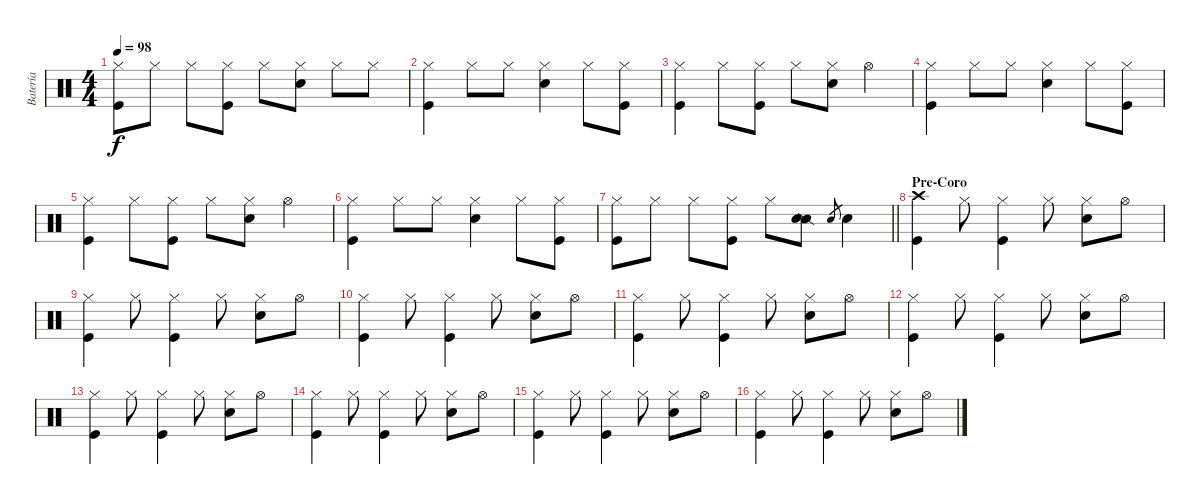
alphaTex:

\track ("Batería" "Batería") {instrument percussion}
\staff {score}
\articulation defaults
\ts (4 4)
\tempo 98
\clef neutral
\ks c
("Hi-Hat (closed)" "Kick (hit)").8{dy f} "Hi-Hat (closed)".8 "Hi-Hat (closed)".8 ("Hi-Hat (closed)" "Kick (hit)").8 "Hi-Hat (closed)".8 ("Hi-Hat (closed)" "Snare (hit) 2").8 "Hi-Hat (closed)".8 "Hi-Hat (closed)".8 |
("Hi-Hat (closed)" "Kick (hit)").4 "Hi-Hat (closed)".8 "Hi-Hat (closed)".8 ("Hi-Hat (closed)" "Snare (hit) 2").4 "Hi-Hat (closed)".8 ("Hi-Hat (closed)" "Kick (hit)").8 |
("Hi-Hat (closed)" "Kick (hit)").4 "Hi-Hat (closed)".8 ("Hi-Hat (closed)" "Kick (hit)").8 "Hi-Hat (closed)".8 ("Hi-Hat (closed)" "Snare (hit) 2").8 "Hi-Hat (open)".4 |
("Hi-Hat (closed)" "Kick (hit)").4 "Hi-Hat (closed)".8 "Hi-Hat (closed)".8 ("Hi-Hat (closed)" "Snare (hit) 2").4 "Hi-Hat (closed)".8 ("Hi-Hat (closed)" "Kick (hit)").8 |
("Hi-Hat (closed)" "Kick (hit)").4 "Hi-Hat (closed)".8 ("Hi-Hat (closed)" "Kick (hit)").8 "Hi-Hat (closed)".8 ("Hi-Hat (closed)" "Snare (hit) 2").8 "Hi-Hat (open)".4 |
("Hi-Hat (closed)" "Kick (hit)").4 "Hi-Hat (closed)".8 "Hi-Hat (closed)".8 ("Hi-Hat (closed)" "Snare (hit) 2").4 "Hi-Hat (closed)".8 ("Hi-Hat (closed)" "Kick (hit)").8 |
\barLineRight lightlight
("Hi-Hat (closed)" "Kick (hit)").8 "Hi-Hat (closed)".8 "Hi-Hat (closed)".8 ("Hi-Hat (closed)" "Kick (hit)").8 "Hi-Hat (closed)".8 ("Snare (side stick) 2" "Snare (hit) 2").8 "Snare (hit) 2".8{gr} "Snare (hit) 2".4 |
\section ("" "Pre-Coro")
("Crash high (hit)" "Kick (hit)").4 "Hi-Hat (closed)".8 ("Hi-Hat (closed)" "Kick (hit)").4 "Hi-Hat (closed)".8 ("Hi-Hat (closed)" "Snare (hit) 2").8 "Hi-Hat (open)".8 |
("Hi-Hat (closed)" "Kick (hit)").4 "Hi-Hat (closed)".8 ("Hi-Hat (closed)" "Kick (hit)").4 "Hi-Hat (closed)".8 ("Hi-Hat (closed)" "Snare (hit) 2").8 "Hi-Hat (open)".8 |
("Hi-Hat (closed)" "Kick (hit)").4 "Hi-Hat (closed)".8 ("Hi-Hat (closed)" "Kick (hit)").4 "Hi-Hat (closed)".8 ("Hi-Hat (closed)" "Snare (hit) 2").8 "Hi-Hat (open)".8 |
("Hi-Hat (closed)" "Kick (hit)").4 "Hi-Hat (closed)".8 ("Hi-Hat (closed)" "Kick (hit)").4 "Hi-Hat (closed)".8 ("Hi-Hat (closed)" "Snare (hit) 2").8 "Hi-Hat (open)".8 |
("Hi-Hat (closed)" "Kick (hit)").4 "Hi-Hat (closed)".8 ("Hi-Hat (closed)" "Kick (hit)").4 "Hi-Hat (closed)".8 ("Hi-Hat (closed)" "Snare (hit) 2").8 "Hi-Hat (open)".8 |
("Hi-Hat (closed)" "Kick (hit)").4 "Hi-Hat (closed)".8 ("Hi-Hat (closed)" "Kick (hit)").4 "Hi-Hat (closed)".8 ("Hi-Hat (closed)" "Snare (hit) 2").8 "Hi-Hat (open)".8 |
("Hi-Hat (closed)" "Kick (hit)").4 "Hi-Hat (closed)".8 ("Hi-Hat (closed)" "Kick (hit)").4 "Hi-Hat (closed)".8 ("Hi-Hat (closed)" "Snare (hit) 2").8 "Hi-Hat (open)".8 |
("Hi-Hat (closed)" "Kick (hit)").4 "Hi-Hat (closed)".8 ("Hi-Hat (closed)" "Kick (hit)").4 "Hi-Hat (closed)".8 ("Hi-Hat (closed)" "Snare (hit) 2").8 "Hi-Hat (open)".8 |
("Hi-Hat (closed)" "Kick (hit)").4 "Hi-Hat (closed)".8 ("Hi-Hat (closed)" "Kick (hit)").4 "Hi-Hat (closed)".8 ("Hi-Hat (closed)" "Snare (hit) 2").8 "Hi-Hat (open)".8
